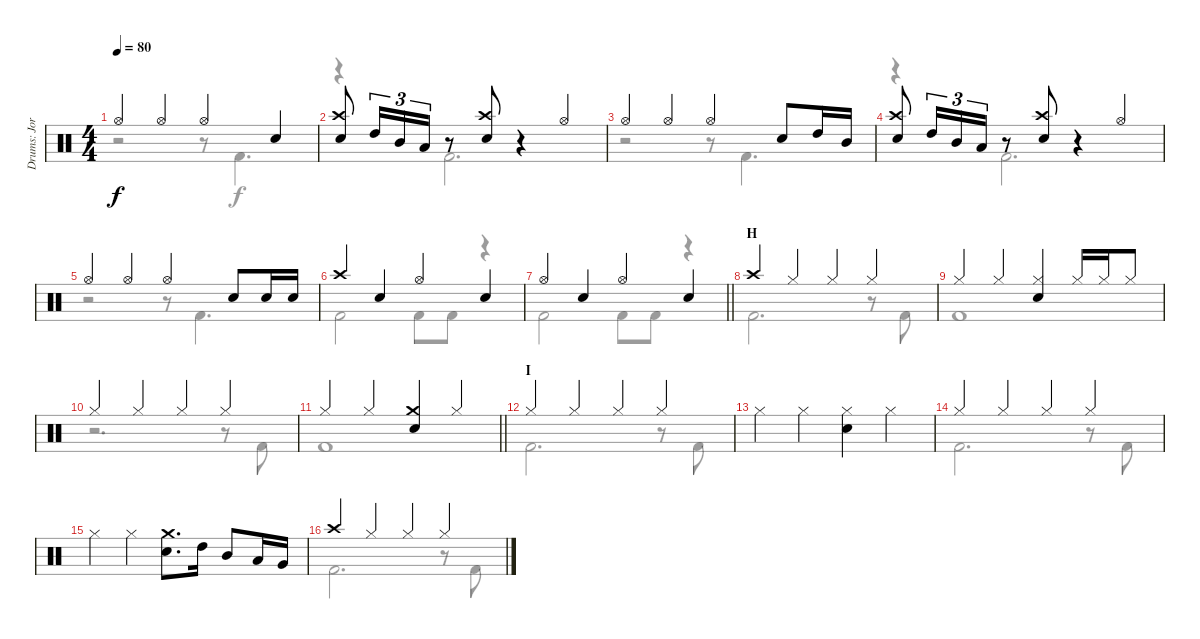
\track ("Drums: Jorg" "Drums: Jor") {instrument percussion}
\staff {score}
\articulation defaults
\voice
\ts (4 4)
\tempo 80
\clef neutral
\ks c "Hi-Hat (open)".4{dy f} "Hi-Hat (open)".4 "Hi-Hat (open)".4 "Snare (hit) 2".4
|
("Crash high (hit)" "Snare (hit) 2").8 "High Tom (hit)".16{tu (3 2)} "Mid Tom (hit)".16{tu (3 2)} "Low Tom (hit)".16{tu (3 2)} r.8 ("Crash high (hit)" "Snare (hit) 2").8 r.4 "Hi-Hat (open)".4 |
"Hi-Hat (open)".4 "Hi-Hat (open)".4 "Hi-Hat (open)".4 "Snare (hit) 2".8 "High Tom (hit)".16 "Mid Tom (hit)".16 |
("Crash high (hit)" "Snare (hit) 2").8 "High Tom (hit)".16{tu (3 2)} "Mid Tom (hit)".16{tu (3 2)} "Low Tom (hit)".16{tu (3 2)} r.8 ("Crash high (hit)" "Snare (hit) 2").8 r.4 "Hi-Hat (open)".4 |
"Hi-Hat (open)".4 "Hi-Hat (open)".4 "Hi-Hat (open)".4 "Snare (hit) 2".8 "Snare (hit) 2".16 "Snare (hit) 2".16 |
"Crash high (hit)".4 "Snare (hit) 2".4 "Hi-Hat (open)".4 "Snare (hit) 2".4 |
\barLineRight lightlight "Hi-Hat (open)".4 "Snare (hit) 2".4 "Hi-Hat (open)".4 "Snare (hit) 2".4
|
\section ("" "H")
"Crash high (hit)".4 "Hi-Hat (closed)".4 "Hi-Hat (closed)".4 "Hi-Hat (closed)".4 |
"Hi-Hat (closed)".4 "Hi-Hat (closed)".4 ("Hi-Hat (closed)" "Snare (hit) 2").4 "Hi-Hat (closed)".16 "Hi-Hat (closed)".16 "Hi-Hat (closed)".8 |
"Hi-Hat (closed)".4 "Hi-Hat (closed)".4 "Hi-Hat (closed)".4 "Hi-Hat (closed)".4 |
\barLineRight lightlight "Hi-Hat (closed)".4 "Hi-Hat (closed)".4
("Crash medium (hit)" "Snare (hit) 2").4 "Hi-Hat (closed)".4 |
\section ("" "I")
"Hi-Hat (closed)".4 "Hi-Hat (closed)".4 "Hi-Hat (closed)".4 "Hi-Hat (closed)".4 |
"Hi-Hat (closed)".4 "Hi-Hat (closed)".4 ("Hi-Hat (closed)" "Snare (hit) 2").4 "Hi-Hat (closed)".4 |
"Hi-Hat (closed)".4 "Hi-Hat (closed)".4 "Hi-Hat (closed)".4 "Hi-Hat (closed)".4 |
"Hi-Hat (closed)".4 "Hi-Hat (closed)".4 ("Crash medium (hit)" "Snare (hit) 2").8{d} "High Tom (hit)".16 "Mid Tom (hit)".8 "Low Tom (hit)".16 "Very Low Tom (hit)".16 |
"Crash high (hit)".4 "Hi-Hat (closed)".4 "Hi-Hat (closed)".4 "Hi-Hat (closed)".4
\voice
\clef neutral
\ottava regular
\simile none
\ks c
r.2{dy f} r.8 "Kick (hit) 2".4{d} |
r.4 "Kick (hit) 2".2{d} |
r.2 r.8 "Kick (hit) 2".4{d} |
r.4 "Kick (hit) 2".2{d} |
r.2 r.8 "Kick (hit) 2".4{d} |
"Kick (hit) 2".2 "Kick (hit) 2".8 "Kick (hit) 2".8 r.4 |
\barLineRight lightlight "Kick (hit) 2".2 "Kick (hit) 2".8 "Kick (hit) 2".8
r.4 |
"Kick (hit) 2".2{d} r.8 "Kick (hit) 2".8 |
"Kick (hit) 2".1 |
r.2{d} r.8 "Kick (hit) 2".8 |
\barLineRight lightlight "Kick (hit) 2".1
|
"Kick (hit) 2".2{d} r.8 "Kick (hit) 2".8 |
|
"Kick (hit) 2".2{d} r.8 "Kick (hit) 2".8 |
|
"Kick (hit) 2".2{d} r.8 "Kick (hit) 2".8
